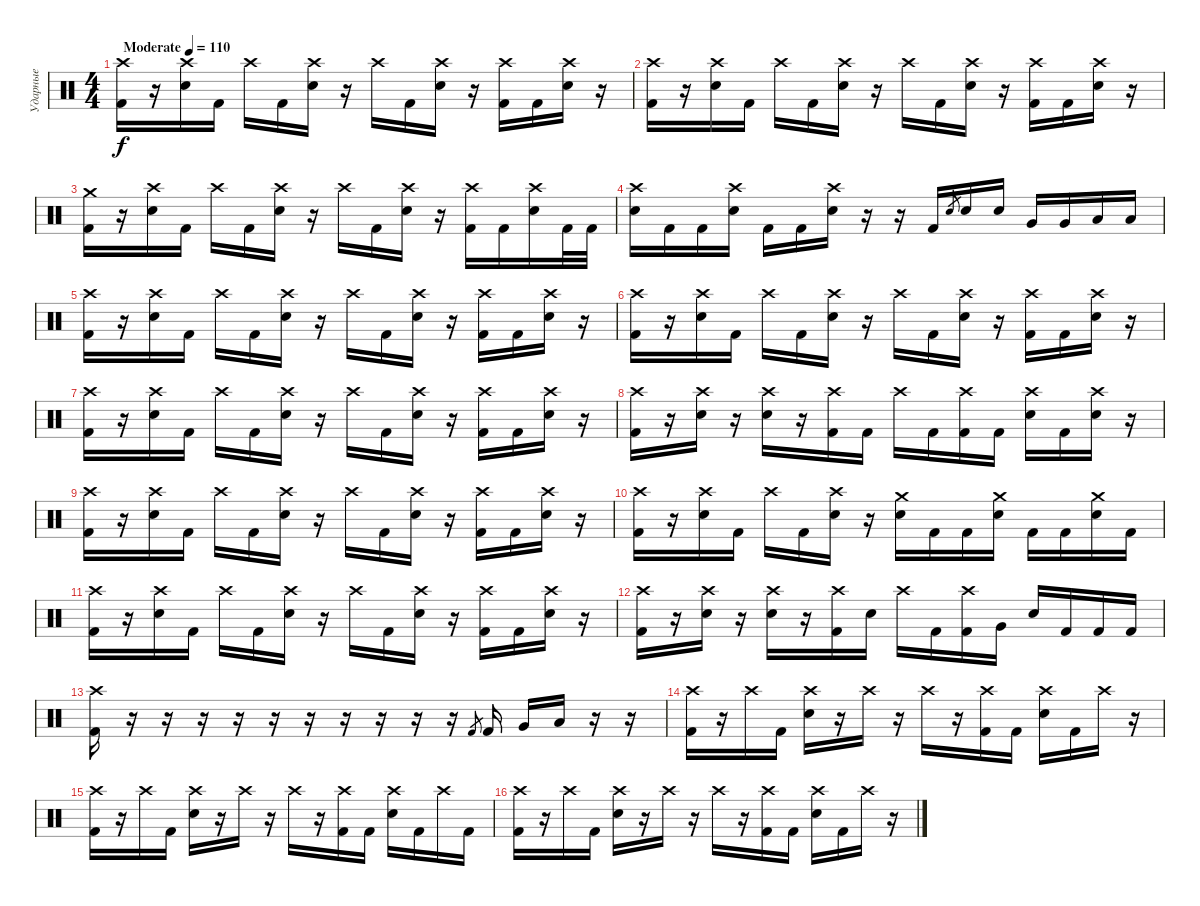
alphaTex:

\track ("Ударные" "Ударные") {instrument percussion}
\staff {score}
\articulation defaults
\ts (4 4)
\tempo (110 "Moderate")
\clef neutral
\ks c
("Crash high (hit)" "Kick (hit) 2").16{dy f} r.16 ("Crash high (hit)" "Electric Snare (hit)").16 "Kick (hit) 2".16 "Crash high (hit)".16 "Kick (hit) 2".16 ("Crash high (hit)" "Electric Snare (hit)").16 r.16 "Crash high (hit)".16 "Kick (hit) 2".16 ("Crash high (hit)" "Electric Snare (hit)").16 r.16 ("Crash high (hit)" "Kick (hit) 2").16 "Kick (hit) 2".16 ("Crash high (hit)" "Electric Snare (hit)").16 r.16 |
("Crash high (hit)" "Kick (hit) 2").16 r.16 ("Crash high (hit)" "Electric Snare (hit)").16 "Kick (hit) 2".16 "Crash high (hit)".16 "Kick (hit) 2".16 ("Crash high (hit)" "Electric Snare (hit)").16 r.16 "Crash high (hit)".16 "Kick (hit) 2".16 ("Crash high (hit)" "Electric Snare (hit)").16 r.16 ("Crash high (hit)" "Kick (hit) 2").16 "Kick (hit) 2".16 ("Crash high (hit)" "Electric Snare (hit)").16 r.16 |
("Crash medium (hit)" "Kick (hit) 2").16 r.16 ("Crash high (hit)" "Electric Snare (hit)").16 "Kick (hit) 2".16 "Crash high (hit)".16 "Kick (hit) 2".16 ("Crash high (hit)" "Electric Snare (hit)").16 r.16 "Crash high (hit)".16 "Kick (hit) 2".16 ("Crash high (hit)" "Electric Snare (hit)").16 r.16 ("Crash high (hit)" "Kick (hit) 2").16 "Kick (hit) 2".16 ("Crash high (hit)" "Electric Snare (hit)").16 "Kick (hit) 2".32 "Kick (hit) 2".32 |
("Crash high (hit)" "Electric Snare (hit)").16 "Kick (hit) 2".16 "Kick (hit) 2".16 ("Crash high (hit)" "Electric Snare (hit)").16 "Kick (hit) 2".16 "Kick (hit) 2".16 ("Crash high (hit)" "Electric Snare (hit)").16 r.16 r.16 "Kick (hit) 2".16 "Electric Snare (hit)".8{gr} "Electric Snare (hit)".16 "Electric Snare (hit)".16 "Very Low Tom (hit)".16 "Very Low Tom (hit)".16 "Low Floor Tom (hit)".16 "Low Floor Tom (hit)".16 |
("Crash high (hit)" "Kick (hit) 2").16 r.16 ("Crash high (hit)" "Electric Snare (hit)").16 "Kick (hit) 2".16 "Crash high (hit)".16 "Kick (hit) 2".16 ("Crash high (hit)" "Electric Snare (hit)").16 r.16 "Crash high (hit)".16 "Kick (hit) 2".16 ("Crash high (hit)" "Electric Snare (hit)").16 r.16 ("Crash high (hit)" "Kick (hit) 2").16 "Kick (hit) 2".16 ("Crash high (hit)" "Electric Snare (hit)").16 r.16 |
("Crash high (hit)" "Kick (hit) 2").16 r.16 ("Crash high (hit)" "Electric Snare (hit)").16 "Kick (hit) 2".16 "Crash high (hit)".16 "Kick (hit) 2".16 ("Crash high (hit)" "Electric Snare (hit)").16 r.16 "Crash high (hit)".16 "Kick (hit) 2".16 ("Crash high (hit)" "Electric Snare (hit)").16 r.16 ("Crash high (hit)" "Kick (hit) 2").16 "Kick (hit) 2".16 ("Crash high (hit)" "Electric Snare (hit)").16 r.16 |
("Crash high (hit)" "Kick (hit) 2").16 r.16 ("Crash high (hit)" "Electric Snare (hit)").16 "Kick (hit) 2".16 "Crash high (hit)".16 "Kick (hit) 2".16 ("Crash high (hit)" "Electric Snare (hit)").16 r.16 "Crash high (hit)".16 "Kick (hit) 2".16 ("Crash high (hit)" "Electric Snare (hit)").16 r.16 ("Crash high (hit)" "Kick (hit) 2").16 "Kick (hit) 2".16 ("Crash high (hit)" "Electric Snare (hit)").16 r.16 |
("Crash high (hit)" "Kick (hit) 2").16 r.16 ("Crash high (hit)" "Electric Snare (hit)").16 r.16 ("Crash high (hit)" "Electric Snare (hit)").16 r.16 ("Crash high (hit)" "Kick (hit) 2").16 "Kick (hit) 2".16 "Crash high (hit)".16 "Kick (hit) 2".16 ("Crash high (hit)" "Kick (hit) 2").16 "Kick (hit) 2".16 ("Crash high (hit)" "Electric Snare (hit)").16 "Kick (hit) 2".16 ("Crash high (hit)" "Electric Snare (hit)").16 r.16 |
("Crash high (hit)" "Kick (hit) 2").16 r.16 ("Crash high (hit)" "Electric Snare (hit)").16 "Kick (hit) 2".16 "Crash high (hit)".16 "Kick (hit) 2".16 ("Crash high (hit)" "Electric Snare (hit)").16 r.16 "Crash high (hit)".16 "Kick (hit) 2".16 ("Crash high (hit)" "Electric Snare (hit)").16 r.16 ("Crash high (hit)" "Kick (hit) 2").16 "Kick (hit) 2".16 ("Crash high (hit)" "Electric Snare (hit)").16 r.16 |
("Crash high (hit)" "Kick (hit) 2").16 r.16 ("Crash high (hit)" "Electric Snare (hit)").16 "Kick (hit) 2".16 "Crash high (hit)".16 "Kick (hit) 2".16 ("Crash high (hit)" "Electric Snare (hit)").16 r.16 ("Crash medium (hit)" "Electric Snare (hit)").16 "Kick (hit) 2".16 "Kick (hit) 2".16 ("Crash medium (hit)" "Electric Snare (hit)").16 "Kick (hit) 2".16 "Kick (hit) 2".16 ("Crash medium (hit)" "Electric Snare (hit)").16 "Kick (hit) 2".16 |
("Crash high (hit)" "Kick (hit) 2").16 r.16 ("Crash high (hit)" "Electric Snare (hit)").16 "Kick (hit) 2".16 "Crash high (hit)".16 "Kick (hit) 2".16 ("Crash high (hit)" "Electric Snare (hit)").16 r.16 "Crash high (hit)".16 "Kick (hit) 2".16 ("Crash high (hit)" "Electric Snare (hit)").16 r.16 ("Crash high (hit)" "Kick (hit) 2").16 "Kick (hit) 2".16 ("Crash high (hit)" "Electric Snare (hit)").16 r.16 |
("Crash high (hit)" "Kick (hit) 2").16 r.16 ("Crash high (hit)" "Electric Snare (hit)").16 r.16 ("Crash high (hit)" "Electric Snare (hit)").16 r.16 ("Crash high (hit)" "Kick (hit) 2").16 "Electric Snare (hit)".16 "Crash high (hit)".16 "Kick (hit) 2".16 ("Crash high (hit)" "Kick (hit) 2").16 "Very Low Tom (hit)".16 "Electric Snare (hit)".16 "Kick (hit) 2".16 "Kick (hit) 2".16 "Kick (hit) 2".16 |
("Crash high (hit)" "Kick (hit) 2").16 r.16 r.16 r.16 r.16 r.16 r.16 r.16 r.16 r.16 r.16 "Kick (hit) 2".8{gr} "Kick (hit) 2".16 "Very Low Tom (hit)".16 "Low Floor Tom (hit)".16 r.16 r.16 |
("Crash high (hit)" "Kick (hit) 2").16 r.16 "Crash high (hit)".16 "Kick (hit) 2".16 ("Crash high (hit)" "Electric Snare (hit)").16 r.16 "Crash high (hit)".16 r.16 "Crash high (hit)".16 r.16 ("Crash high (hit)" "Kick (hit) 2").16 "Kick (hit) 2".16 ("Crash high (hit)" "Electric Snare (hit)").16 "Kick (hit) 2".16 "Crash high (hit)".16 r.16 |
("Crash high (hit)" "Kick (hit) 2").16 r.16 "Crash high (hit)".16 "Kick (hit) 2".16 ("Crash high (hit)" "Electric Snare (hit)").16 r.16 "Crash high (hit)".16 r.16 "Crash high (hit)".16 r.16 ("Crash high (hit)" "Kick (hit) 2").16 "Kick (hit) 2".16 ("Crash high (hit)" "Electric Snare (hit)").16 "Kick (hit) 2".16 "Crash high (hit)".16 "Kick (hit) 2".16 |
("Crash high (hit)" "Kick (hit) 2").16 r.16 "Crash high (hit)".16 "Kick (hit) 2".16 ("Crash high (hit)" "Electric Snare (hit)").16 r.16 "Crash high (hit)".16 r.16 "Crash high (hit)".16 r.16 ("Crash high (hit)" "Kick (hit) 2").16 "Kick (hit) 2".16 ("Crash high (hit)" "Electric Snare (hit)").16 "Kick (hit) 2".16 "Crash high (hit)".16 r.16
